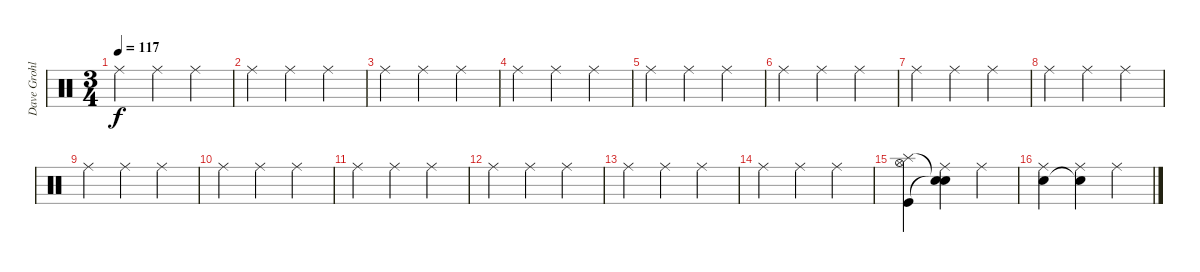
\track ("Dave Grohl-Drums" "Dave Grohl") {instrument percussion}
\staff {score}
\articulation defaults
\ts (3 4)
\tempo 117
\clef neutral
\ks c "Ride (middle)".4{dy f} "Ride (middle)".4 "Ride (middle)".4
|
"Ride (middle)".4 "Ride (middle)".4 "Ride (middle)".4 |
"Ride (middle)".4 "Ride (middle)".4 "Ride (middle)".4 |
"Ride (middle)".4 "Ride (middle)".4 "Ride (middle)".4 |
"Ride (middle)".4 "Ride (middle)".4 "Ride (middle)".4 |
"Ride (middle)".4 "Ride (middle)".4 "Ride (middle)".4 |
"Ride (middle)".4 "Ride (middle)".4 "Ride (middle)".4 |
"Ride (middle)".4 "Ride (middle)".4 "Ride (middle)".4 |
"Ride (middle)".4 "Ride (middle)".4 "Ride (middle)".4 |
"Ride (middle)".4 "Ride (middle)".4 "Ride (middle)".4 |
"Ride (middle)".4 "Ride (middle)".4 "Ride (middle)".4 |
"Ride (middle)".4 "Ride (middle)".4 "Ride (middle)".4 |
"Ride (middle)".4 "Ride (middle)".4 "Ride (middle)".4 |
"Ride (middle)".4 "Ride (middle)".4 "Ride (middle)".4 |
("Splash (hit)" "Kick (hit)" "Hi-Hat (open)").4{volume 8} ("Snare (hit)"{t} "Snare (hit)"{t} "Ride (middle)").4 "Ride (middle)".4 |
("Electric Snare (hit)" "Ride (middle)").4 ("Snare (hit)"{t} "Ride (middle)").4 "Ride (middle)".4
